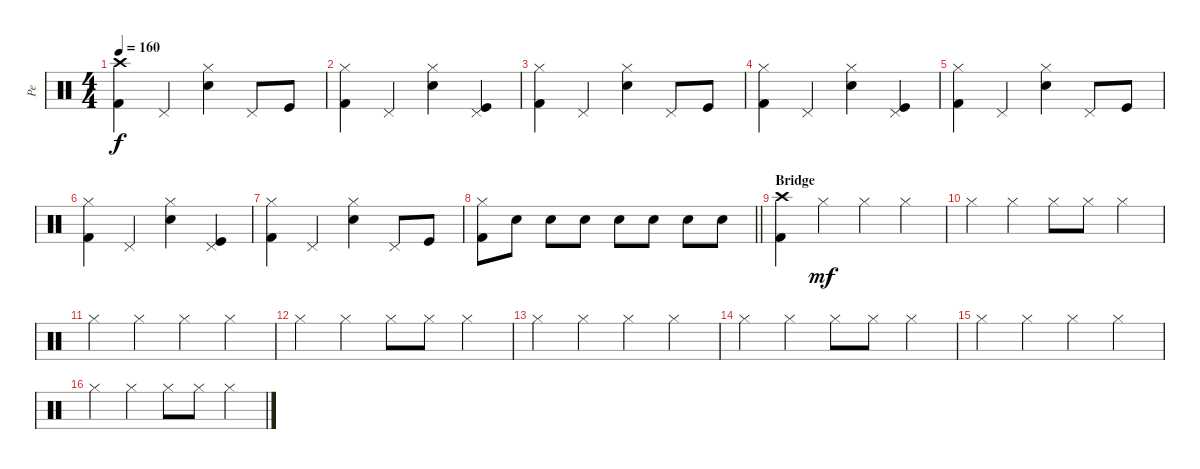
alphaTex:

\track ("Pe" "Pe") {instrument percussion}
\staff {score}
\articulation defaults
\ts (4 4)
\tempo 160
\clef neutral
\ks c
("Kick (hit) 2" "Crash high (hit)").4{dy f} "Pedal Hi-Hat (hit)".4 ("Electric Snare (hit)" "Hi-Hat (closed)").4 "Pedal Hi-Hat (hit)".8 "Kick (hit)".8 |
("Kick (hit) 2" "Hi-Hat (closed)").4 "Pedal Hi-Hat (hit)".4 ("Electric Snare (hit)" "Hi-Hat (closed)").4 ("Kick (hit)" "Pedal Hi-Hat (hit)").4 |
("Kick (hit) 2" "Hi-Hat (closed)").4 "Pedal Hi-Hat (hit)".4 ("Electric Snare (hit)" "Hi-Hat (closed)").4 "Pedal Hi-Hat (hit)".8 "Kick (hit)".8 |
("Kick (hit) 2" "Hi-Hat (closed)").4 "Pedal Hi-Hat (hit)".4 ("Electric Snare (hit)" "Hi-Hat (closed)").4 ("Kick (hit)" "Pedal Hi-Hat (hit)").4 |
("Kick (hit) 2" "Hi-Hat (closed)").4 "Pedal Hi-Hat (hit)".4 ("Electric Snare (hit)" "Hi-Hat (closed)").4 "Pedal Hi-Hat (hit)".8 "Kick (hit)".8 |
("Kick (hit) 2" "Hi-Hat (closed)").4 "Pedal Hi-Hat (hit)".4 ("Electric Snare (hit)" "Hi-Hat (closed)").4 ("Kick (hit)" "Pedal Hi-Hat (hit)").4 |
("Kick (hit) 2" "Hi-Hat (closed)").4 "Pedal Hi-Hat (hit)".4 ("Electric Snare (hit)" "Hi-Hat (closed)").4 "Pedal Hi-Hat (hit)".8 "Kick (hit)".8 |
\barLineRight lightlight
("Kick (hit) 2" "Hi-Hat (closed)").8 "Electric Snare (hit)".8 "Electric Snare (hit)".8 "Electric Snare (hit)".8 "Electric Snare (hit)".8 "Electric Snare (hit)".8 "Electric Snare (hit)".8 "Electric Snare (hit)".8 |
\section ("" "Bridge")
("Kick (hit) 2" "Crash high (hit)").4 "Hi-Hat (closed)".4{dy mf} "Hi-Hat (closed)".4 "Hi-Hat (closed)".4 |
"Hi-Hat (closed)".4 "Hi-Hat (closed)".4 "Hi-Hat (closed)".8 "Hi-Hat (closed)".8 "Hi-Hat (closed)".4 |
"Hi-Hat (closed)".4 "Hi-Hat (closed)".4 "Hi-Hat (closed)".4 "Hi-Hat (closed)".4 |
"Hi-Hat (closed)".4 "Hi-Hat (closed)".4 "Hi-Hat (closed)".8 "Hi-Hat (closed)".8 "Hi-Hat (closed)".4 |
"Hi-Hat (closed)".4 "Hi-Hat (closed)".4 "Hi-Hat (closed)".4 "Hi-Hat (closed)".4 |
"Hi-Hat (closed)".4 "Hi-Hat (closed)".4 "Hi-Hat (closed)".8 "Hi-Hat (closed)".8 "Hi-Hat (closed)".4 |
"Hi-Hat (closed)".4 "Hi-Hat (closed)".4 "Hi-Hat (closed)".4 "Hi-Hat (closed)".4 |
"Hi-Hat (closed)".4 "Hi-Hat (closed)".4 "Hi-Hat (closed)".8 "Hi-Hat (closed)".8 "Hi-Hat (closed)".4
